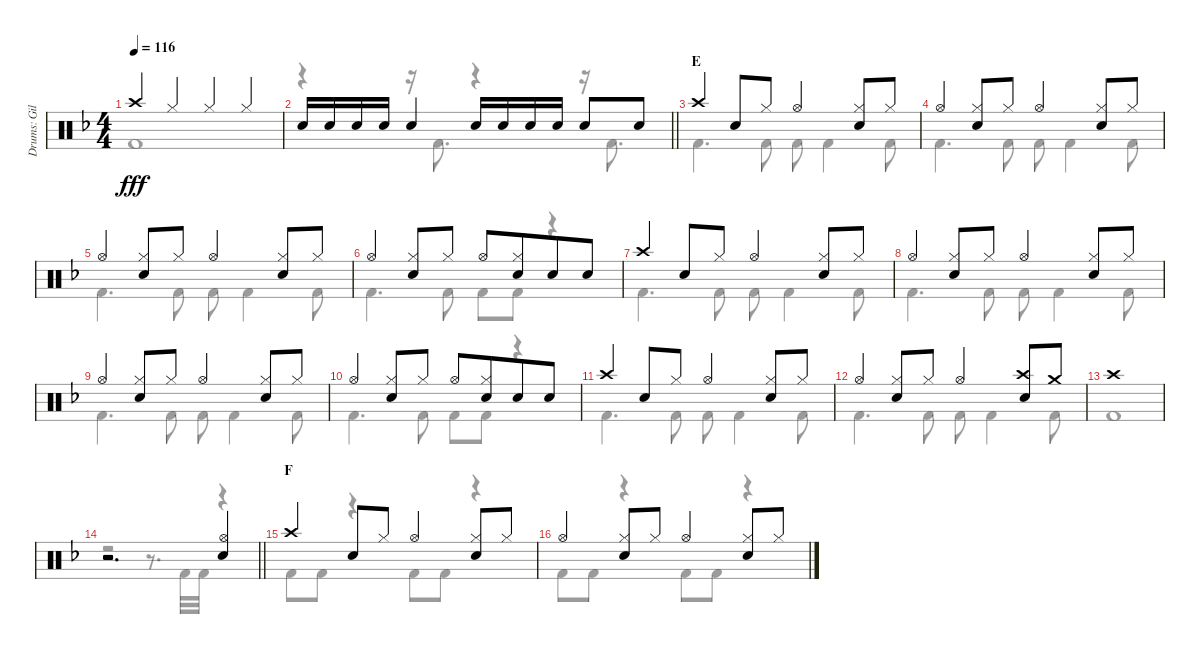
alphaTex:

\track ("Drums: Gil" "Drums: Gil") {instrument percussion}
\staff {score}
\articulation defaults
\voice
\ts (4 4)
\tempo 116
\clef neutral
\ks f "Crash high (hit)".4{dy fff} "Hi-Hat (closed)".4 "Hi-Hat (closed)".4 "Hi-Hat (closed)".4
|
\barLineRight lightlight "Snare (hit) 2".16 "Snare (hit) 2".16 "Snare (hit) 2".16 "Snare (hit) 2".16 "Snare (hit) 2".4 "Snare (hit) 2".16 "Snare (hit) 2".16 "Snare (hit) 2".16 "Snare (hit) 2".16 "Snare (hit) 2".8 "Snare (hit) 2".8
|
\section ("" "E")
"Crash high (hit)".4{beam merge} "Snare (hit) 2".8 "Hi-Hat (closed)".8 "Hi-Hat (open)".4{beam merge} ("Hi-Hat (closed)" "Snare (hit) 2").8 "Hi-Hat (closed)".8 |
"Hi-Hat (open)".4{beam merge} ("Hi-Hat (closed)" "Snare (hit) 2").8 "Hi-Hat (closed)".8 "Hi-Hat (open)".4{beam merge} ("Hi-Hat (closed)" "Snare (hit) 2").8 "Hi-Hat (closed)".8 |
"Hi-Hat (open)".4{beam merge} ("Hi-Hat (closed)" "Snare (hit) 2").8 "Hi-Hat (closed)".8 "Hi-Hat (open)".4{beam merge} ("Hi-Hat (closed)" "Snare (hit) 2").8 "Hi-Hat (closed)".8 |
"Hi-Hat (open)".4{beam merge} ("Hi-Hat (closed)" "Snare (hit) 2").8 "Hi-Hat (closed)".8 "Hi-Hat (open)".8{beam merge} ("Hi-Hat (closed)" "Snare (hit) 2").8{beam merge} "Snare (hit) 2".8 "Snare (hit) 2".8 |
"Crash high (hit)".4{beam merge} "Snare (hit) 2".8 "Hi-Hat (closed)".8 "Hi-Hat (open)".4{beam merge} ("Hi-Hat (closed)" "Snare (hit) 2").8 "Hi-Hat (closed)".8 |
"Hi-Hat (open)".4{beam merge} ("Hi-Hat (closed)" "Snare (hit) 2").8 "Hi-Hat (closed)".8 "Hi-Hat (open)".4{beam merge} ("Hi-Hat (closed)" "Snare (hit) 2").8 "Hi-Hat (closed)".8 |
"Hi-Hat (open)".4{beam merge} ("Hi-Hat (closed)" "Snare (hit) 2").8 "Hi-Hat (closed)".8 "Hi-Hat (open)".4{beam merge} ("Hi-Hat (closed)" "Snare (hit) 2").8 "Hi-Hat (closed)".8 |
"Hi-Hat (open)".4{beam merge} ("Hi-Hat (closed)" "Snare (hit) 2").8 "Hi-Hat (closed)".8 "Hi-Hat (open)".8{beam merge} ("Hi-Hat (closed)" "Snare (hit) 2").8{beam merge} "Snare (hit) 2".8 "Snare (hit) 2".8 |
"Crash high (hit)".4{beam merge} "Snare (hit) 2".8 "Hi-Hat (closed)".8 "Hi-Hat (open)".4{beam merge} ("Hi-Hat (closed)" "Snare (hit) 2").8 "Hi-Hat (closed)".8 |
"Hi-Hat (open)".4{beam merge} ("Hi-Hat (closed)" "Snare (hit) 2").8 "Hi-Hat (closed)".8 "Hi-Hat (open)".4{beam merge} ("Crash high (hit)" "Snare (hit) 2").8 "Crash medium (hit)".8 |
"Crash high (hit)".1 |
\barLineRight lightlight
r.2{d} ("Hi-Hat (open)" "Snare (hit) 2").4 |
\section ("" "F")
"Crash high (hit)".4{beam merge} "Snare (hit) 2".8 "Hi-Hat (closed)".8 "Hi-Hat (open)".4{beam merge} ("Hi-Hat (closed)" "Snare (hit) 2").8 "Hi-Hat (closed)".8 |
"Hi-Hat (open)".4{beam merge} ("Hi-Hat (closed)" "Snare (hit) 2").8 "Hi-Hat (closed)".8 "Hi-Hat (open)".4{beam merge} ("Hi-Hat (closed)" "Snare (hit) 2").8 "Hi-Hat (closed)".8
\voice
\clef neutral
\ottava regular
\simile none
\ks f "Kick (hit) 2".1{dy fff}
|
\barLineRight lightlight
r.4 r.16 "Kick (hit) 2".8{d} r.4 r.16 "Kick (hit) 2".8{d} |
"Kick (hit) 2".4{d} "Kick (hit) 2".8 "Kick (hit) 2".8 "Kick (hit) 2".4 "Kick (hit) 2".8 |
"Kick (hit) 2".4{d} "Kick (hit) 2".8 "Kick (hit) 2".8 "Kick (hit) 2".4 "Kick (hit) 2".8 |
"Kick (hit) 2".4{d} "Kick (hit) 2".8 "Kick (hit) 2".8 "Kick (hit) 2".4 "Kick (hit) 2".8 |
"Kick (hit) 2".4{d} "Kick (hit) 2".8 "Kick (hit) 2".8 "Kick (hit) 2".8 r.4 |
"Kick (hit) 2".4{d} "Kick (hit) 2".8 "Kick (hit) 2".8 "Kick (hit) 2".4 "Kick (hit) 2".8 |
"Kick (hit) 2".4{d} "Kick (hit) 2".8 "Kick (hit) 2".8 "Kick (hit) 2".4 "Kick (hit) 2".8 |
"Kick (hit) 2".4{d} "Kick (hit) 2".8 "Kick (hit) 2".8 "Kick (hit) 2".4 "Kick (hit) 2".8 |
"Kick (hit) 2".4{d} "Kick (hit) 2".8 "Kick (hit) 2".8 "Kick (hit) 2".8 r.4 |
"Kick (hit) 2".4{d} "Kick (hit) 2".8 "Kick (hit) 2".8 "Kick (hit) 2".4 "Kick (hit) 2".8 |
"Kick (hit) 2".4{d} "Kick (hit) 2".8 "Kick (hit) 2".8 "Kick (hit) 2".4 "Kick (hit) 2".8 |
"Kick (hit) 2".1 |
\barLineRight lightlight
r.2 r.8{d} "Kick (hit) 2".32 "Kick (hit) 2".32 r.4 |
"Kick (hit) 2".8 "Kick (hit) 2".8 r.4 "Kick (hit) 2".8 "Kick (hit) 2".8 r.4 |
"Kick (hit) 2".8 "Kick (hit) 2".8 r.4 "Kick (hit) 2".8 "Kick (hit) 2".8 r.4
